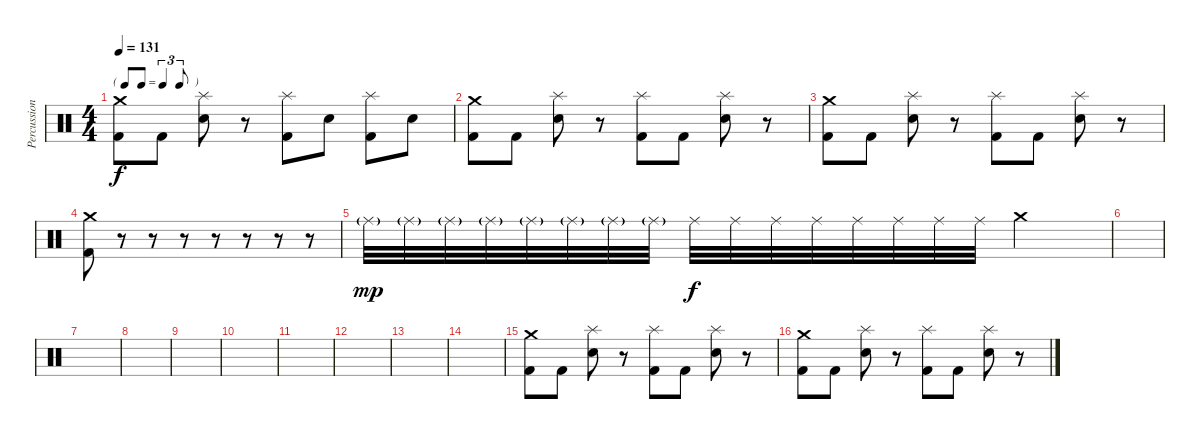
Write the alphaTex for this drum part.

\track ("Percussioni" "Percussion") {instrument percussion}
\staff {score}
\articulation defaults
\ts (4 4)
\tf triplet8th
\tempo 131
\clef neutral
\ks c
("Crash medium (hit)" "Kick (hit) 2").8{dy f} "Kick (hit) 2".8 ("Splash (hit)" "Electric Snare (hit)").8 r.8 ("Splash (hit)" "Kick (hit) 2").8 "Electric Snare (hit)".8 ("Splash (hit)" "Kick (hit) 2").8 "Electric Snare (hit)".8 |
("Crash medium (hit)" "Kick (hit) 2").8 "Kick (hit) 2".8 ("Splash (hit)" "Electric Snare (hit)").8 r.8 ("Splash (hit)" "Kick (hit) 2").8 "Kick (hit) 2".8 ("Splash (hit)" "Electric Snare (hit)").8 r.8 |
("Crash medium (hit)" "Kick (hit) 2").8 "Kick (hit) 2".8 ("Splash (hit)" "Electric Snare (hit)").8 r.8 ("Splash (hit)" "Kick (hit) 2").8 "Kick (hit) 2".8 ("Splash (hit)" "Electric Snare (hit)").8 r.8 |
("Crash medium (hit)" "Kick (hit) 2").8 r.8 r.8 r.8 r.8 r.8 r.8 r.8 |
"Ride (middle)"{g}.32{dy mp} "Ride (middle)"{g}.32 "Ride (middle)"{g}.32 "Ride (middle)"{g}.32 "Ride (middle)"{g}.32 "Ride (middle)"{g}.32 "Ride (middle)"{g}.32 "Ride (middle)"{g}.32 "Ride (middle)".32{dy f} "Ride (middle)".32 "Ride (middle)".32 "Ride (middle)".32 "Ride (middle)".32 "Ride (middle)".32 "Ride (middle)".32 "Ride (middle)".32 "Crash medium (hit)".2 |
|
|
|
|
|
|
|
|
|
("Crash medium (hit)" "Kick (hit) 2").8 "Kick (hit) 2".8 ("Splash (hit)" "Electric Snare (hit)").8 r.8 ("Splash (hit)" "Kick (hit) 2").8 "Kick (hit) 2".8 ("Splash (hit)" "Electric Snare (hit)").8 r.8 |
("Crash medium (hit)" "Kick (hit) 2").8 "Kick (hit) 2".8 ("Splash (hit)" "Electric Snare (hit)").8 r.8 ("Splash (hit)" "Kick (hit) 2").8 "Kick (hit) 2".8 ("Splash (hit)" "Electric Snare (hit)").8 r.8
